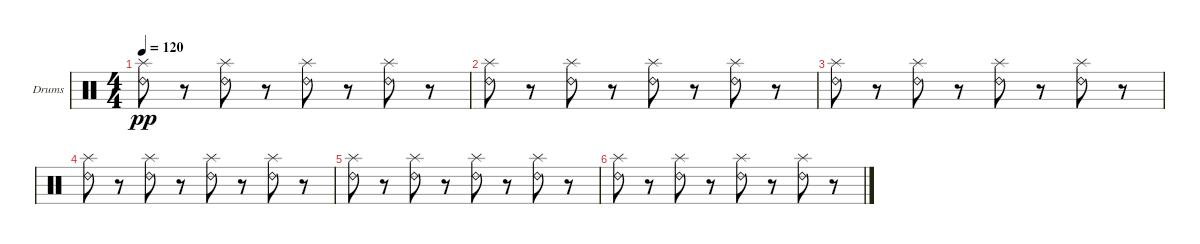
\defaultSystemsLayout 4
\bracketExtendMode groupsimilarinstruments
\firstSystemTrackNameOrientation horizontal
\otherSystemsTrackNameOrientation horizontal
\track ("Drumkit" "Drums") {instrument percussion}
\staff {score}
\articulation defaults
\ts (4 4)
\tempo 120
\clef neutral
\scale
0.333333
\ks c
("Ride (bell) 2" "Splash (hit)").8{dy pp} r.8 ("Ride (bell) 2" "Splash (hit)").8 r.8 ("Ride (bell) 2" "Splash (hit)").8 r.8 ("Ride (bell) 2" "Splash (hit)").8 r.8 |
\scale
0.333333 ("Ride (bell) 2" "Splash (hit)").8 r.8 ("Ride (bell) 2" "Splash (hit)").8 r.8 ("Ride (bell) 2" "Splash (hit)").8 r.8 ("Ride (bell) 2" "Splash (hit)").8 r.8 |
\scale
0.333333 ("Ride (bell) 2" "Splash (hit)").8 r.8 ("Ride (bell) 2" "Splash (hit)").8 r.8 ("Ride (bell) 2" "Splash (hit)").8 r.8 ("Ride (bell) 2" "Splash (hit)").8 r.8 |
\scale
0.333333 ("Ride (bell) 2" "Splash (hit)").8 r.8 ("Ride (bell) 2" "Splash (hit)").8 r.8 ("Ride (bell) 2" "Splash (hit)").8 r.8 ("Ride (bell) 2" "Splash (hit)").8 r.8 |
\scale
0.333333 ("Ride (bell) 2" "Splash (hit)").8 r.8 ("Ride (bell) 2" "Splash (hit)").8 r.8 ("Ride (bell) 2" "Splash (hit)").8 r.8 ("Ride (bell) 2" "Splash (hit)").8 r.8 |
\scale
0.333333 ("Ride (bell) 2" "Splash (hit)").8 r.8 ("Ride (bell) 2" "Splash (hit)").8 r.8 ("Ride (bell) 2" "Splash (hit)").8 r.8 ("Ride (bell) 2" "Splash (hit)").8 r.8 |
\scale
0.333333 |
\scale
0.333333 |
\scale
0.333333 |
\scale
0.333333 |
\scale
0.333333 |
\scale
0.333333 |
\scale
0.333333 |
\scale
0.333333 |
\scale
0.333333 |
\scale
0.333333
